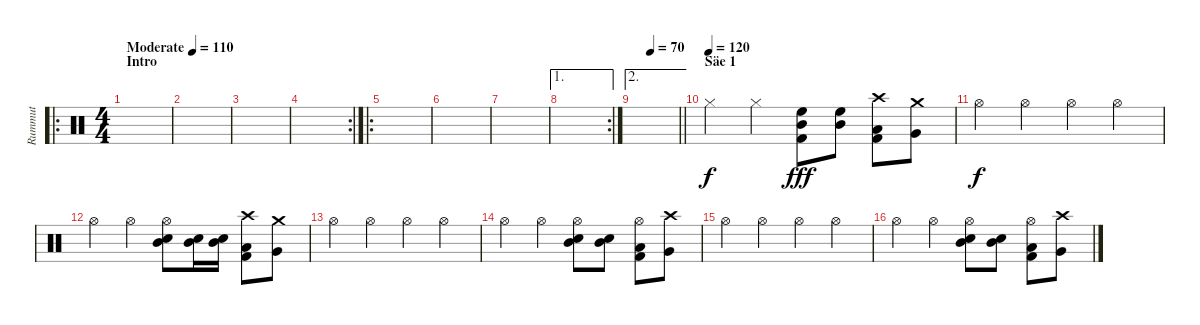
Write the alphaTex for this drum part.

\track ("Rummut" "Rummut") {instrument percussion}
\staff {score}
\articulation defaults
\ro
\ts (4 4)
\section ("" "Intro")
\tempo (110 "Moderate")
\clef neutral
\ks c
|
|
|
\rc 2
|
\ro
|
|
|
\ae 1
\rc 2
|
\ae 2
\tempo (70 0.375)
\barLineRight lightlight
|
\section ("" "Säe 1")
\tempo (120)
"Hi-Hat (closed)".4 "Hi-Hat (closed)".4 ("Mid Tom (hit)" "High Floor Tom (hit)" "Kick (hit) 2").8{dy fff} ("Mid Tom (hit)" "High Floor Tom (hit)").8 ("Low Tom (hit)" "Kick (hit) 2" "Crash high (hit)").8 ("Very Low Tom (hit)" "Crash medium (hit)").8 |
"Hi-Hat (open)".4{dy f} "Hi-Hat (open)".4 "Hi-Hat (open)".4 "Hi-Hat (open)".4 |
"Hi-Hat (open)".4 "Hi-Hat (open)".4 ("Mid Tom (hit)" "Snare (hit) 2" "Hi-Hat (open)").8 ("Mid Tom (hit)" "Snare (hit) 2").16 ("Mid Tom (hit)" "Snare (hit) 2").16 ("Low Tom (hit)" "Crash high (hit)" "Kick (hit) 2").8 ("Crash medium (hit)" "Very Low Tom (hit)").8 |
"Hi-Hat (open)".4 "Hi-Hat (open)".4 "Hi-Hat (open)".4 "Hi-Hat (open)".4 |
"Hi-Hat (open)".4 "Hi-Hat (open)".4 ("Mid Tom (hit)" "Snare (hit) 2" "Hi-Hat (open)").8 ("Mid Tom (hit)" "Snare (hit) 2").8 ("Hi-Hat (open)" "Low Tom (hit)" "Kick (hit) 2").8 ("Crash high (hit)" "Very Low Tom (hit)").8 |
"Hi-Hat (open)".4 "Hi-Hat (open)".4 "Hi-Hat (open)".4 "Hi-Hat (open)".4 |
"Hi-Hat (open)".4 "Hi-Hat (open)".4 ("Mid Tom (hit)" "Snare (hit) 2" "Hi-Hat (open)").8 ("Mid Tom (hit)" "Snare (hit) 2").8 ("Hi-Hat (open)" "Low Tom (hit)" "Kick (hit) 2").8 ("Crash high (hit)" "Very Low Tom (hit)").8
